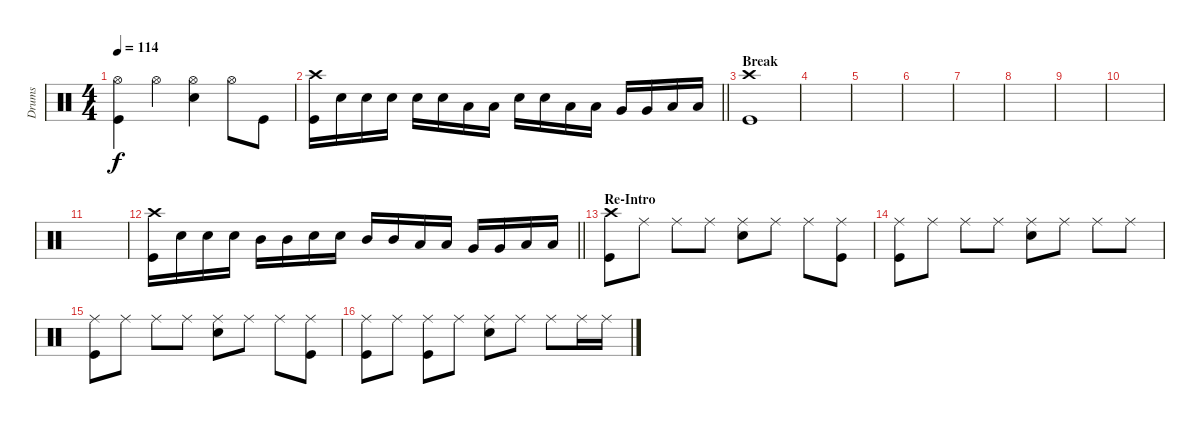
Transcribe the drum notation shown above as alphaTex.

\track ("Drums" "Drums") {instrument percussion}
\staff {score}
\articulation defaults
\ts (4 4)
\tempo 114
\clef neutral
\ks c
("Hi-Hat (open)" "Kick (hit)").4{dy f} "Hi-Hat (open)".4 ("Hi-Hat (open)" "Snare (hit) 2").4 "Hi-Hat (open)".8 "Kick (hit)".8 |
\barLineRight lightlight
("Crash high (hit)" "Kick (hit)").16 "Snare (hit) 2".16 "Snare (hit) 2".16 "Snare (hit) 2".16 "Snare (hit) 2".16 "Snare (hit) 2".16 "Low Tom (hit)".16 "Low Tom (hit)".16 "Snare (hit) 2".16 "Snare (hit) 2".16 "Low Tom (hit)".16 "Low Tom (hit)".16 "Very Low Tom (hit)".16 "Very Low Tom (hit)".16 "Low Floor Tom (hit)".16 "Low Floor Tom (hit)".16 |
\section ("" "Break")
("Crash high (hit)" "Kick (hit)").1 |
|
|
|
|
|
|
|
|
\barLineRight lightlight
("Crash high (hit)" "Kick (hit)").16 "Snare (hit) 2".16 "Snare (hit) 2".16 "Snare (hit) 2".16 "Mid Tom (hit)".16 "Mid Tom (hit)".16 "Snare (hit) 2".16 "Snare (hit) 2".16 "Mid Tom (hit)".16 "Mid Tom (hit)".16 "Low Tom (hit)".16 "Low Tom (hit)".16 "Very Low Tom (hit)".16 "Very Low Tom (hit)".16 "Low Floor Tom (hit)".16 "Low Floor Tom (hit)".16 |
\section ("" "Re-Intro")
("Crash high (hit)" "Kick (hit)").8 "Ride (middle)".8 "Ride (middle)".8 "Ride (middle)".8 ("Ride (middle)" "Snare (hit) 2").8 "Ride (middle)".8 "Ride (middle)".8 ("Ride (middle)" "Kick (hit)").8 |
("Ride (middle)" "Kick (hit)").8 "Ride (middle)".8 "Ride (middle)".8 "Ride (middle)".8 ("Ride (middle)" "Snare (hit) 2").8 "Ride (middle)".8 "Ride (middle)".8 "Ride (middle)".8 |
("Ride (middle)" "Kick (hit)").8 "Ride (middle)".8 "Ride (middle)".8 "Ride (middle)".8 ("Ride (middle)" "Snare (hit) 2").8 "Ride (middle)".8 "Ride (middle)".8 ("Ride (middle)" "Kick (hit)").8 |
("Ride (middle)" "Kick (hit)").8 "Ride (middle)".8 ("Ride (middle)" "Kick (hit)").8 "Ride (middle)".8 ("Ride (middle)" "Snare (hit) 2").8 "Ride (middle)".8 "Ride (middle)".8 "Ride (middle)".16 "Ride (middle)".16
